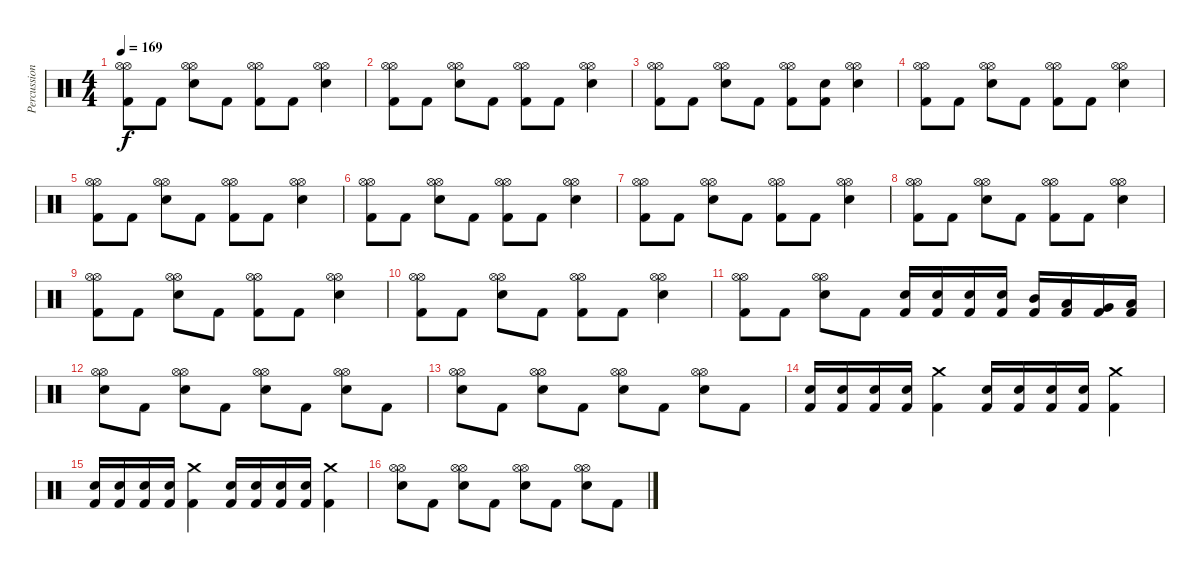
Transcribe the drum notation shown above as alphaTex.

\track ("Percussion" "Percussion") {instrument percussion}
\staff {score}
\articulation defaults
\ts (4 4)
\tempo 169
\clef neutral
\ks c
("Hi-Hat (open)" "Hi-Hat (open)" "Kick (hit) 2").8{dy f} "Kick (hit) 2".8 ("Hi-Hat (open)" "Hi-Hat (open)" "Snare (hit) 2").8 "Kick (hit) 2".8 ("Hi-Hat (open)" "Hi-Hat (open)" "Kick (hit) 2").8 "Kick (hit) 2".8 ("Hi-Hat (open)" "Hi-Hat (open)" "Snare (hit) 2").4 |
("Hi-Hat (open)" "Hi-Hat (open)" "Kick (hit) 2").8 "Kick (hit) 2".8 ("Hi-Hat (open)" "Hi-Hat (open)" "Snare (hit) 2").8 "Kick (hit) 2".8 ("Hi-Hat (open)" "Hi-Hat (open)" "Kick (hit) 2").8 "Kick (hit) 2".8 ("Hi-Hat (open)" "Hi-Hat (open)" "Snare (hit) 2").4 |
("Hi-Hat (open)" "Hi-Hat (open)" "Kick (hit) 2").8 "Kick (hit) 2".8 ("Hi-Hat (open)" "Hi-Hat (open)" "Snare (hit) 2").8 "Kick (hit) 2".8 ("Hi-Hat (open)" "Hi-Hat (open)" "Kick (hit) 2").8 ("Snare (hit) 2" "Kick (hit) 2").8 ("Hi-Hat (open)" "Hi-Hat (open)" "Snare (hit) 2").4 |
("Hi-Hat (open)" "Hi-Hat (open)" "Kick (hit) 2").8 "Kick (hit) 2".8 ("Hi-Hat (open)" "Hi-Hat (open)" "Snare (hit) 2").8 "Kick (hit) 2".8 ("Hi-Hat (open)" "Hi-Hat (open)" "Kick (hit) 2").8 "Kick (hit) 2".8 ("Hi-Hat (open)" "Hi-Hat (open)" "Snare (hit) 2").4 |
("Hi-Hat (open)" "Hi-Hat (open)" "Kick (hit) 2").8 "Kick (hit) 2".8 ("Hi-Hat (open)" "Hi-Hat (open)" "Snare (hit) 2").8 "Kick (hit) 2".8 ("Hi-Hat (open)" "Hi-Hat (open)" "Kick (hit) 2").8 "Kick (hit) 2".8 ("Hi-Hat (open)" "Hi-Hat (open)" "Snare (hit) 2").4 |
("Hi-Hat (open)" "Hi-Hat (open)" "Kick (hit) 2").8 "Kick (hit) 2".8 ("Hi-Hat (open)" "Hi-Hat (open)" "Snare (hit) 2").8 "Kick (hit) 2".8 ("Hi-Hat (open)" "Hi-Hat (open)" "Kick (hit) 2").8 "Kick (hit) 2".8 ("Hi-Hat (open)" "Hi-Hat (open)" "Snare (hit) 2").4 |
("Hi-Hat (open)" "Hi-Hat (open)" "Kick (hit) 2").8 "Kick (hit) 2".8 ("Hi-Hat (open)" "Hi-Hat (open)" "Snare (hit) 2").8 "Kick (hit) 2".8 ("Hi-Hat (open)" "Hi-Hat (open)" "Kick (hit) 2").8 "Kick (hit) 2".8 ("Hi-Hat (open)" "Hi-Hat (open)" "Snare (hit) 2").4 |
("Hi-Hat (open)" "Hi-Hat (open)" "Kick (hit) 2").8 "Kick (hit) 2".8 ("Hi-Hat (open)" "Hi-Hat (open)" "Snare (hit) 2").8 "Kick (hit) 2".8 ("Hi-Hat (open)" "Hi-Hat (open)" "Kick (hit) 2").8 "Kick (hit) 2".8 ("Hi-Hat (open)" "Hi-Hat (open)" "Snare (hit) 2").4 |
("Hi-Hat (open)" "Hi-Hat (open)" "Kick (hit) 2").8 "Kick (hit) 2".8 ("Hi-Hat (open)" "Hi-Hat (open)" "Snare (hit) 2").8 "Kick (hit) 2".8 ("Hi-Hat (open)" "Hi-Hat (open)" "Kick (hit) 2").8 "Kick (hit) 2".8 ("Hi-Hat (open)" "Hi-Hat (open)" "Snare (hit) 2").4 |
("Hi-Hat (open)" "Hi-Hat (open)" "Kick (hit) 2").8 "Kick (hit) 2".8 ("Hi-Hat (open)" "Hi-Hat (open)" "Snare (hit) 2").8 "Kick (hit) 2".8 ("Hi-Hat (open)" "Hi-Hat (open)" "Kick (hit) 2").8 "Kick (hit) 2".8 ("Hi-Hat (open)" "Hi-Hat (open)" "Snare (hit) 2").4 |
("Hi-Hat (open)" "Hi-Hat (open)" "Kick (hit) 2").8 "Kick (hit) 2".8 ("Hi-Hat (open)" "Hi-Hat (open)" "Snare (hit) 2").8 "Kick (hit) 2".8 ("Snare (hit) 2" "Kick (hit) 2").16 ("Snare (hit) 2" "Kick (hit) 2").16 ("Snare (hit) 2" "Kick (hit) 2").16 ("Snare (hit) 2" "Kick (hit) 2").16 ("Mid Tom (hit)" "Kick (hit) 2").16 ("Low Tom (hit)" "Kick (hit) 2").16 ("Very Low Tom (hit)" "Kick (hit) 2").16 ("Low Floor Tom (hit)" "Kick (hit) 2").16 |
("Hi-Hat (open)" "Hi-Hat (open)" "Snare (hit) 2").8 "Kick (hit) 2".8 ("Hi-Hat (open)" "Hi-Hat (open)" "Snare (hit) 2").8 "Kick (hit) 2".8 ("Hi-Hat (open)" "Hi-Hat (open)" "Snare (hit) 2").8 "Kick (hit) 2".8 ("Hi-Hat (open)" "Hi-Hat (open)" "Snare (hit) 2").8 "Kick (hit) 2".8 |
("Hi-Hat (open)" "Hi-Hat (open)" "Snare (hit) 2").8 "Kick (hit) 2".8 ("Hi-Hat (open)" "Hi-Hat (open)" "Snare (hit) 2").8 "Kick (hit) 2".8 ("Hi-Hat (open)" "Hi-Hat (open)" "Snare (hit) 2").8 "Kick (hit) 2".8 ("Hi-Hat (open)" "Hi-Hat (open)" "Snare (hit) 2").8 "Kick (hit) 2".8 |
("Snare (hit) 2" "Kick (hit) 2").16 ("Snare (hit) 2" "Kick (hit) 2").16 ("Snare (hit) 2" "Kick (hit) 2").16 ("Snare (hit) 2" "Kick (hit) 2").16 ("Crash medium (hit)" "Kick (hit) 2").4 ("Snare (hit) 2" "Kick (hit) 2").16 ("Snare (hit) 2" "Kick (hit) 2").16 ("Snare (hit) 2" "Kick (hit) 2").16 ("Snare (hit) 2" "Kick (hit) 2").16 ("Crash medium (hit)" "Kick (hit) 2").4 |
("Snare (hit) 2" "Kick (hit) 2").16 ("Snare (hit) 2" "Kick (hit) 2").16 ("Snare (hit) 2" "Kick (hit) 2").16 ("Snare (hit) 2" "Kick (hit) 2").16 ("Crash medium (hit)" "Kick (hit) 2").4 ("Snare (hit) 2" "Kick (hit) 2").16 ("Snare (hit) 2" "Kick (hit) 2").16 ("Snare (hit) 2" "Kick (hit) 2").16 ("Snare (hit) 2" "Kick (hit) 2").16 ("Crash medium (hit)" "Kick (hit) 2").4 |
("Hi-Hat (open)" "Hi-Hat (open)" "Snare (hit) 2").8 "Kick (hit) 2".8 ("Hi-Hat (open)" "Hi-Hat (open)" "Snare (hit) 2").8 "Kick (hit) 2".8 ("Hi-Hat (open)" "Hi-Hat (open)" "Snare (hit) 2").8 "Kick (hit) 2".8 ("Hi-Hat (open)" "Hi-Hat (open)" "Snare (hit) 2").8 "Kick (hit) 2".8
